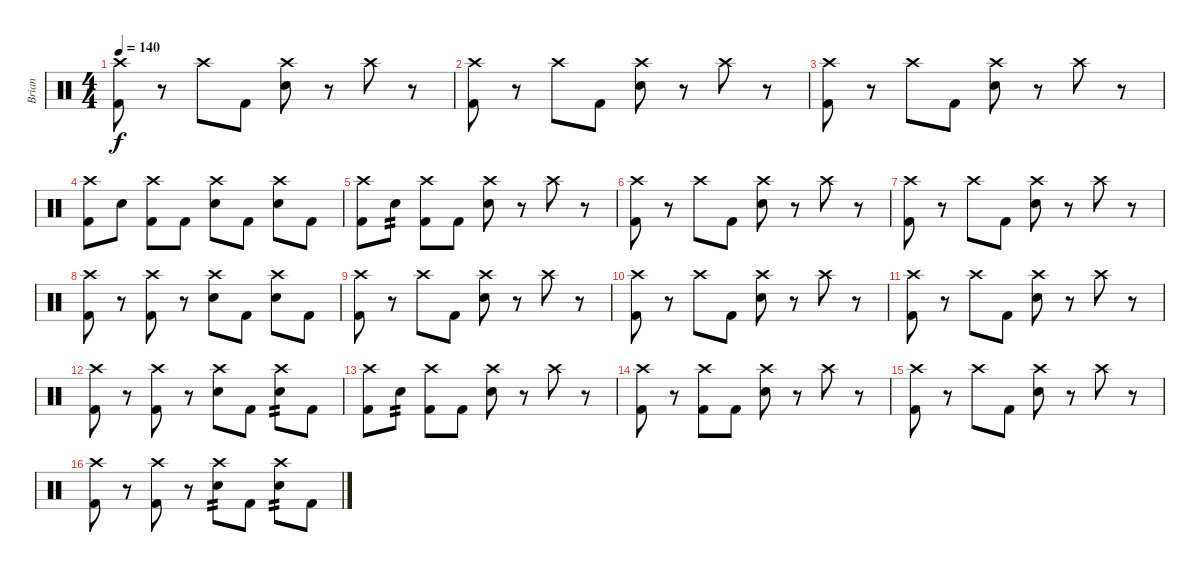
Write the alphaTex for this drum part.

\track ("Brian" "Brian") {instrument percussion}
\staff {score}
\articulation defaults
\ts (4 4)
\tempo 140
\clef neutral
\ks c
("Crash high (hit)" "Kick (hit) 2").8{dy f} r.8 "Crash high (hit)".8 "Kick (hit) 2".8 ("Crash high (hit)" "Electric Snare (hit)").8 r.8 "Crash high (hit)".8 r.8 |
("Crash high (hit)" "Kick (hit) 2").8 r.8 "Crash high (hit)".8 "Kick (hit) 2".8 ("Crash high (hit)" "Electric Snare (hit)").8 r.8 "Crash high (hit)".8 r.8 |
("Crash high (hit)" "Kick (hit) 2").8 r.8 "Crash high (hit)".8 "Kick (hit) 2".8 ("Crash high (hit)" "Electric Snare (hit)").8 r.8 "Crash high (hit)".8 r.8 |
("Crash high (hit)" "Kick (hit) 2").8 "Electric Snare (hit)".8 ("Crash high (hit)" "Kick (hit) 2").8 "Kick (hit) 2".8 ("Crash high (hit)" "Electric Snare (hit)").8 "Kick (hit) 2".8 ("Crash high (hit)" "Electric Snare (hit)").8 "Kick (hit) 2".8 |
("Crash high (hit)" "Kick (hit) 2").8 "Electric Snare (hit)".8{tp 2} ("Crash high (hit)" "Kick (hit) 2").8 "Kick (hit) 2".8 ("Crash high (hit)" "Electric Snare (hit)").8 r.8 "Crash high (hit)".8 r.8 |
("Crash high (hit)" "Kick (hit) 2").8 r.8 "Crash high (hit)".8 "Kick (hit) 2".8 ("Crash high (hit)" "Electric Snare (hit)").8 r.8 "Crash high (hit)".8 r.8 |
("Crash high (hit)" "Kick (hit) 2").8 r.8 "Crash high (hit)".8 "Kick (hit) 2".8 ("Crash high (hit)" "Electric Snare (hit)").8 r.8 "Crash high (hit)".8 r.8 |
("Crash high (hit)" "Kick (hit) 2").8 r.8 ("Crash high (hit)" "Kick (hit) 2").8 r.8 ("Crash high (hit)" "Electric Snare (hit)").8 "Kick (hit) 2".8 ("Crash high (hit)" "Electric Snare (hit)").8 "Kick (hit) 2".8 |
("Crash high (hit)" "Kick (hit) 2").8 r.8 "Crash high (hit)".8 "Kick (hit) 2".8 ("Crash high (hit)" "Electric Snare (hit)").8 r.8 "Crash high (hit)".8 r.8 |
("Crash high (hit)" "Kick (hit) 2").8 r.8 "Crash high (hit)".8 "Kick (hit) 2".8 ("Crash high (hit)" "Electric Snare (hit)").8 r.8 "Crash high (hit)".8 r.8 |
("Crash high (hit)" "Kick (hit) 2").8 r.8 "Crash high (hit)".8 "Kick (hit) 2".8 ("Crash high (hit)" "Electric Snare (hit)").8 r.8 "Crash high (hit)".8 r.8 |
("Crash high (hit)" "Kick (hit) 2").8 r.8 ("Crash high (hit)" "Kick (hit) 2").8 r.8 ("Crash high (hit)" "Electric Snare (hit)").8 "Kick (hit) 2".8 ("Crash high (hit)" "Electric Snare (hit)").8{tp 2} "Kick (hit) 2".8 |
("Crash high (hit)" "Kick (hit) 2").8 "Electric Snare (hit)".8{tp 2} ("Crash high (hit)" "Kick (hit) 2").8 "Kick (hit) 2".8 ("Crash high (hit)" "Electric Snare (hit)").8 r.8 "Crash high (hit)".8 r.8 |
("Crash high (hit)" "Kick (hit) 2").8 r.8 ("Crash high (hit)" "Kick (hit) 2").8 "Kick (hit) 2".8 ("Crash high (hit)" "Electric Snare (hit)").8 r.8 "Crash high (hit)".8 r.8 |
("Crash high (hit)" "Kick (hit) 2").8 r.8 "Crash high (hit)".8 "Kick (hit) 2".8 ("Crash high (hit)" "Electric Snare (hit)").8 r.8 "Crash high (hit)".8 r.8 |
("Crash high (hit)" "Kick (hit) 2").8 r.8 ("Crash high (hit)" "Kick (hit) 2").8 r.8 ("Crash high (hit)" "Electric Snare (hit)").8{tp 2} "Kick (hit) 2".8 ("Crash high (hit)" "Electric Snare (hit)").8{tp 2} "Kick (hit) 2".8
